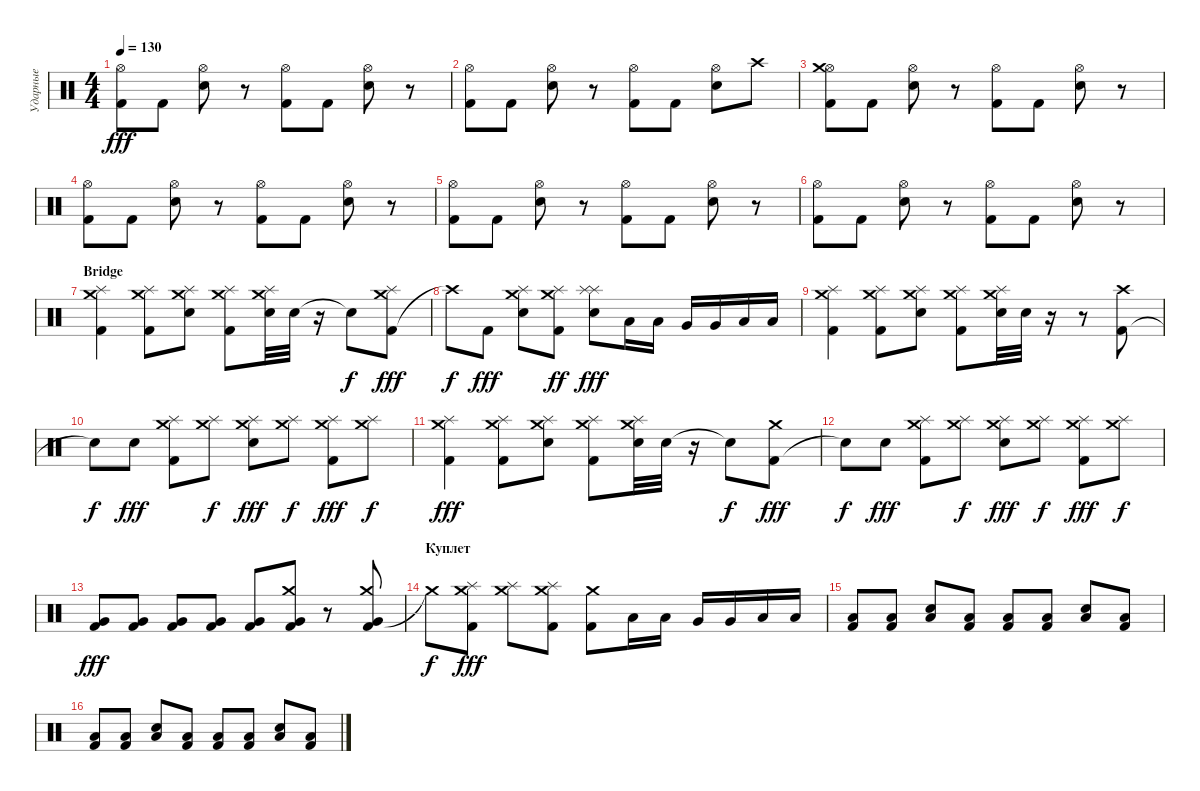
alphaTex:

\track ("Ударные" "Ударные") {instrument percussion}
\staff {score}
\articulation defaults
\ts (4 4)
\tempo 130
\clef neutral
\ks c
("Kick (hit) 2" "Hi-Hat (open)").8{dy fff} "Kick (hit) 2".8 ("Snare (hit) 2" "Hi-Hat (open)").8 r.8 ("Kick (hit) 2" "Hi-Hat (open)").8 "Kick (hit) 2".8 ("Snare (hit) 2" "Hi-Hat (open)").8 r.8 |
("Kick (hit) 2" "Hi-Hat (open)").8 "Kick (hit) 2".8 ("Snare (hit) 2" "Hi-Hat (open)").8 r.8 ("Kick (hit) 2" "Hi-Hat (open)").8 "Kick (hit) 2".8 ("Snare (hit) 2" "Hi-Hat (open)").8 "Crash high (hit)".8 |
("Kick (hit) 2" "Hi-Hat (open)" "Crash medium (hit)").8 "Kick (hit) 2".8 ("Snare (hit) 2" "Hi-Hat (open)").8 r.8 ("Kick (hit) 2" "Hi-Hat (open)").8 "Kick (hit) 2".8 ("Snare (hit) 2" "Hi-Hat (open)").8 r.8 |
("Kick (hit) 2" "Hi-Hat (open)").8 "Kick (hit) 2".8 ("Snare (hit) 2" "Hi-Hat (open)").8 r.8 ("Kick (hit) 2" "Hi-Hat (open)").8 "Kick (hit) 2".8 ("Snare (hit) 2" "Hi-Hat (open)").8 r.8 |
("Kick (hit) 2" "Hi-Hat (open)").8 "Kick (hit) 2".8 ("Snare (hit) 2" "Hi-Hat (open)").8 r.8 ("Kick (hit) 2" "Hi-Hat (open)").8 "Kick (hit) 2".8 ("Snare (hit) 2" "Hi-Hat (open)").8 r.8 |
("Kick (hit) 2" "Hi-Hat (open)").8 "Kick (hit) 2".8 ("Snare (hit) 2" "Hi-Hat (open)").8 r.8 ("Kick (hit) 2" "Hi-Hat (open)").8 "Kick (hit) 2".8 ("Snare (hit) 2" "Hi-Hat (open)").8 r.8 |
\section ("" "Bridge")
("Kick (hit) 2" "Crash medium (hit)" "Splash (hit)").4 ("Kick (hit) 2" "Crash medium (hit)" "Splash (hit)").8 ("Snare (hit) 2" "Crash medium (hit)" "Splash (hit)").8 ("Kick (hit) 2" "Crash medium (hit)" "Splash (hit)").8 ("Snare (hit) 2" "Crash medium (hit)" "Splash (hit)").32 "Snare (hit) 2".32 r.16 "Snare (hit)"{t}.8{dy f} ("Kick (hit) 2" "Crash medium (hit)" "Splash (hit)").8{dy fff} |
"Crash high (hit)"{t}.8{dy f} "Kick (hit) 2".8{dy fff} ("Snare (hit) 2" "Crash medium (hit)" "Splash (hit)").8 ("Kick (hit) 2" "Crash medium (hit)" "Splash (hit)").8{dy ff} ("Snare (hit) 2" "Splash (hit)" "Splash (hit)").8{dy fff} "Low Tom (hit)".16 "Low Tom (hit)".16 "Very Low Tom (hit)".16 "Very Low Tom (hit)".16 "Low Floor Tom (hit)".16 "Low Floor Tom (hit)".16 |
("Kick (hit) 2" "Crash medium (hit)" "Splash (hit)").4 ("Kick (hit) 2" "Crash medium (hit)" "Splash (hit)").8 ("Snare (hit) 2" "Crash medium (hit)" "Splash (hit)").8 ("Kick (hit) 2" "Crash medium (hit)" "Splash (hit)").8 ("Snare (hit) 2" "Crash medium (hit)" "Splash (hit)").32 "Snare (hit) 2".32 r.16 r.8 ("Kick (hit) 2" "Crash high (hit)").8 |
"Snare (hit)"{t}.8{dy f} "Snare (hit) 2".8{dy fff} ("Kick (hit) 2" "Crash medium (hit)" "Splash (hit)").8 ("Crash medium (hit)" "Splash (hit)").8{dy f} ("Snare (hit) 2" "Crash medium (hit)" "Splash (hit)").8{dy fff} ("Crash medium (hit)" "Splash (hit)").8{dy f} ("Kick (hit) 2" "Crash medium (hit)" "Splash (hit)").8{dy fff} ("Crash medium (hit)" "Splash (hit)").8{dy f} |
("Kick (hit) 2" "Crash medium (hit)" "Splash (hit)").4{dy fff} ("Kick (hit) 2" "Crash medium (hit)" "Splash (hit)").8 ("Snare (hit) 2" "Crash medium (hit)" "Splash (hit)").8 ("Kick (hit) 2" "Crash medium (hit)" "Splash (hit)").8 ("Snare (hit) 2" "Crash medium (hit)" "Splash (hit)").32 "Snare (hit) 2".32 r.16 "Snare (hit)"{t}.8{dy f} ("Kick (hit) 2" "Crash medium (hit)").8{dy fff} |
"Snare (hit)"{t}.8{dy f} "Snare (hit) 2".8{dy fff} ("Kick (hit) 2" "Crash medium (hit)" "Splash (hit)").8 ("Crash medium (hit)" "Splash (hit)").8{dy f} ("Snare (hit) 2" "Crash medium (hit)" "Splash (hit)").8{dy fff} ("Crash medium (hit)" "Splash (hit)").8{dy f} ("Kick (hit) 2" "Crash medium (hit)" "Splash (hit)").8{dy fff} ("Crash medium (hit)" "Splash (hit)").8{dy f} |
("Very Low Tom (hit)" "Kick (hit) 2").8{dy fff} ("Very Low Tom (hit)" "Kick (hit) 2").8 ("Very Low Tom (hit)" "Kick (hit) 2").8 ("Very Low Tom (hit)" "Kick (hit) 2").8 ("Very Low Tom (hit)" "Kick (hit) 2").8 ("Very Low Tom (hit)" "Kick (hit) 2" "Crash medium (hit)").8 r.8 ("Very Low Tom (hit)" "Kick (hit) 2" "Crash medium (hit)").8 |
\section ("" "Куплет")
"Crash medium (hit)"{t}.8{dy f} ("Kick (hit) 2" "Crash medium (hit)" "Splash (hit)").8{dy fff} ("Crash medium (hit)" "Splash (hit)").8 ("Kick (hit) 2" "Crash medium (hit)" "Splash (hit)").8 ("Kick (hit) 2" "Crash medium (hit)").8 "Low Tom (hit)".16 "Low Tom (hit)".16 "Very Low Tom (hit)".16 "Very Low Tom (hit)".16 "Low Floor Tom (hit)".16 "Low Floor Tom (hit)".16 |
("Kick (hit) 2" "Low Tom (hit)").8 ("Kick (hit) 2" "Low Tom (hit)").8 ("Snare (hit) 2" "Low Tom (hit)").8 ("Kick (hit) 2" "Low Tom (hit)").8 ("Kick (hit) 2" "Low Tom (hit)").8 ("Kick (hit) 2" "Low Tom (hit)").8 ("Snare (hit) 2" "Low Tom (hit)").8 ("Kick (hit) 2" "Low Tom (hit)").8 |
("Kick (hit) 2" "Low Tom (hit)").8 ("Kick (hit) 2" "Low Tom (hit)").8 ("Snare (hit) 2" "Low Tom (hit)").8 ("Kick (hit) 2" "Low Tom (hit)").8 ("Kick (hit) 2" "Low Tom (hit)").8 ("Kick (hit) 2" "Low Tom (hit)").8 ("Snare (hit) 2" "Low Tom (hit)").8 ("Kick (hit) 2" "Low Tom (hit)").8
